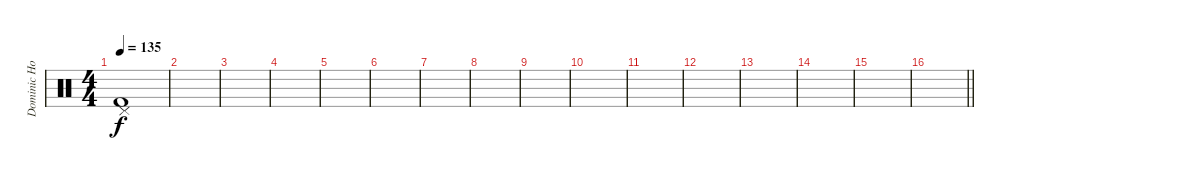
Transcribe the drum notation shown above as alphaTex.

\track ("Dominic Howard (Drums)" "Dominic Ho") {instrument percussion}
\staff {score}
\articulation defaults
\ts (4 4)
\tempo 135
\clef neutral
\ks c
("Pedal Hi-Hat (hit)" "Kick (hit) 2").1{dy f} |
|
|
|
|
|
|
|
|
|
|
|
|
|
|
\barLineRight lightlight
